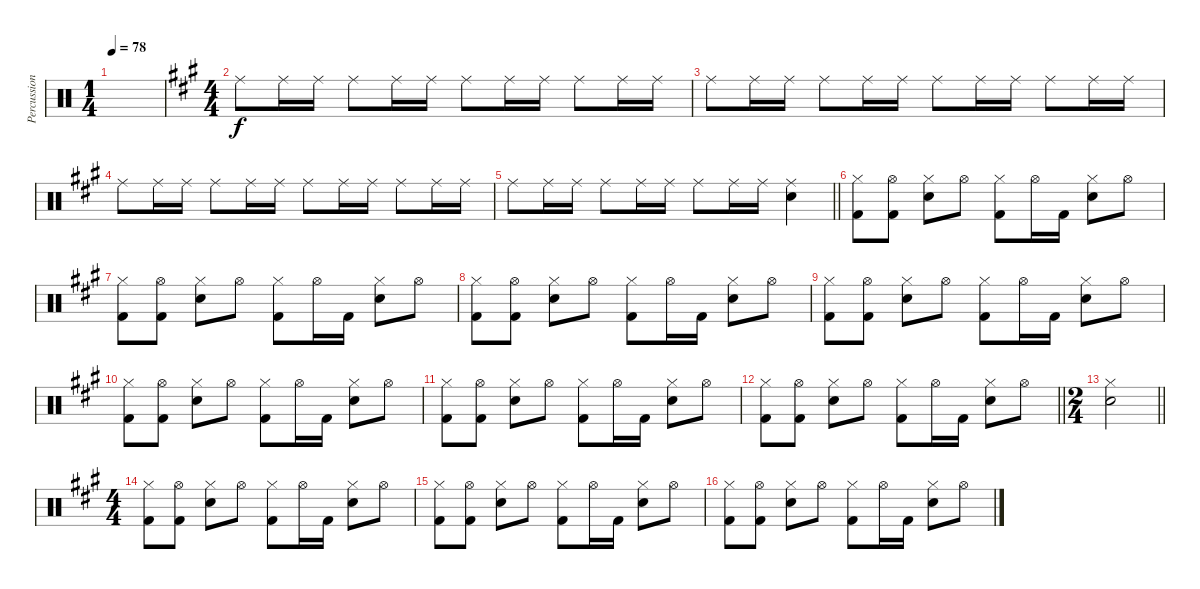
\track ("Percussions" "Percussion") {instrument percussion}
\staff {score}
\articulation defaults
\ts (1 4)
\tempo 78
\clef neutral
\ks c
|
\ts (4 4)
\ks a "Ride (middle)".8 "Ride (middle)".16 "Ride (middle)".16 "Ride (middle)".8 "Ride (middle)".16 "Ride (middle)".16 "Ride (middle)".8 "Ride (middle)".16 "Ride (middle)".16 "Ride (middle)".8 "Ride (middle)".16 "Ride (middle)".16
|
"Ride (middle)".8 "Ride (middle)".16 "Ride (middle)".16 "Ride (middle)".8 "Ride (middle)".16 "Ride (middle)".16 "Ride (middle)".8 "Ride (middle)".16 "Ride (middle)".16 "Ride (middle)".8 "Ride (middle)".16 "Ride (middle)".16 |
"Ride (middle)".8 "Ride (middle)".16 "Ride (middle)".16 "Ride (middle)".8 "Ride (middle)".16 "Ride (middle)".16 "Ride (middle)".8 "Ride (middle)".16 "Ride (middle)".16 "Ride (middle)".8 "Ride (middle)".16 "Ride (middle)".16 |
\barLineRight lightlight "Ride (middle)".8 "Ride (middle)".16 "Ride (middle)".16 "Ride (middle)".8 "Ride (middle)".16 "Ride (middle)".16 "Ride (middle)".8 "Ride (middle)".16 "Ride (middle)".16
("Ride (middle)" "Snare (hit) 2").4 |
("Hi-Hat (closed)" "Kick (hit) 2").8 ("Hi-Hat (open)" "Kick (hit) 2").8 ("Hi-Hat (closed)" "Snare (hit) 2").8 "Hi-Hat (open)".8 ("Hi-Hat (closed)" "Kick (hit) 2").8 "Hi-Hat (open)".16 "Kick (hit) 2".16 ("Hi-Hat (closed)" "Snare (hit) 2").8 "Hi-Hat (open)".8 |
("Hi-Hat (closed)" "Kick (hit) 2").8 ("Hi-Hat (open)" "Kick (hit) 2").8 ("Hi-Hat (closed)" "Snare (hit) 2").8 "Hi-Hat (open)".8 ("Hi-Hat (closed)" "Kick (hit) 2").8 "Hi-Hat (open)".16 "Kick (hit) 2".16 ("Hi-Hat (closed)" "Snare (hit) 2").8 "Hi-Hat (open)".8 |
("Hi-Hat (closed)" "Kick (hit) 2").8 ("Hi-Hat (open)" "Kick (hit) 2").8 ("Hi-Hat (closed)" "Snare (hit) 2").8 "Hi-Hat (open)".8 ("Hi-Hat (closed)" "Kick (hit) 2").8 "Hi-Hat (open)".16 "Kick (hit) 2".16 ("Hi-Hat (closed)" "Snare (hit) 2").8 "Hi-Hat (open)".8 |
("Hi-Hat (closed)" "Kick (hit) 2").8 ("Hi-Hat (open)" "Kick (hit) 2").8 ("Hi-Hat (closed)" "Snare (hit) 2").8 "Hi-Hat (open)".8 ("Hi-Hat (closed)" "Kick (hit) 2").8 "Hi-Hat (open)".16 "Kick (hit) 2".16 ("Hi-Hat (closed)" "Snare (hit) 2").8 "Hi-Hat (open)".8 |
("Hi-Hat (closed)" "Kick (hit) 2").8 ("Hi-Hat (open)" "Kick (hit) 2").8 ("Hi-Hat (closed)" "Snare (hit) 2").8 "Hi-Hat (open)".8 ("Hi-Hat (closed)" "Kick (hit) 2").8 "Hi-Hat (open)".16 "Kick (hit) 2".16 ("Hi-Hat (closed)" "Snare (hit) 2").8 "Hi-Hat (open)".8 |
("Hi-Hat (closed)" "Kick (hit) 2").8 ("Hi-Hat (open)" "Kick (hit) 2").8 ("Hi-Hat (closed)" "Snare (hit) 2").8 "Hi-Hat (open)".8 ("Hi-Hat (closed)" "Kick (hit) 2").8 "Hi-Hat (open)".16 "Kick (hit) 2".16 ("Hi-Hat (closed)" "Snare (hit) 2").8 "Hi-Hat (open)".8 |
\barLineRight lightlight
("Hi-Hat (closed)" "Kick (hit) 2").8 ("Hi-Hat (open)" "Kick (hit) 2").8 ("Hi-Hat (closed)" "Snare (hit) 2").8 "Hi-Hat (open)".8 ("Hi-Hat (closed)" "Kick (hit) 2").8 "Hi-Hat (open)".16 "Kick (hit) 2".16 ("Hi-Hat (closed)" "Snare (hit) 2").8 "Hi-Hat (open)".8 |
\ts (2 4)
\barLineRight lightlight
("Hi-Hat (closed)" "Snare (hit) 2").2 |
\ts (4 4)
("Hi-Hat (closed)" "Kick (hit) 2").8 ("Hi-Hat (open)" "Kick (hit) 2").8 ("Hi-Hat (closed)" "Snare (hit) 2").8 "Hi-Hat (open)".8 ("Hi-Hat (closed)" "Kick (hit) 2").8 "Hi-Hat (open)".16 "Kick (hit) 2".16 ("Hi-Hat (closed)" "Snare (hit) 2").8 "Hi-Hat (open)".8 |
("Hi-Hat (closed)" "Kick (hit) 2").8 ("Hi-Hat (open)" "Kick (hit) 2").8 ("Hi-Hat (closed)" "Snare (hit) 2").8 "Hi-Hat (open)".8 ("Hi-Hat (closed)" "Kick (hit) 2").8 "Hi-Hat (open)".16 "Kick (hit) 2".16 ("Hi-Hat (closed)" "Snare (hit) 2").8 "Hi-Hat (open)".8 |
("Hi-Hat (closed)" "Kick (hit) 2").8 ("Hi-Hat (open)" "Kick (hit) 2").8 ("Hi-Hat (closed)" "Snare (hit) 2").8 "Hi-Hat (open)".8 ("Hi-Hat (closed)" "Kick (hit) 2").8 "Hi-Hat (open)".16 "Kick (hit) 2".16 ("Hi-Hat (closed)" "Snare (hit) 2").8 "Hi-Hat (open)".8
